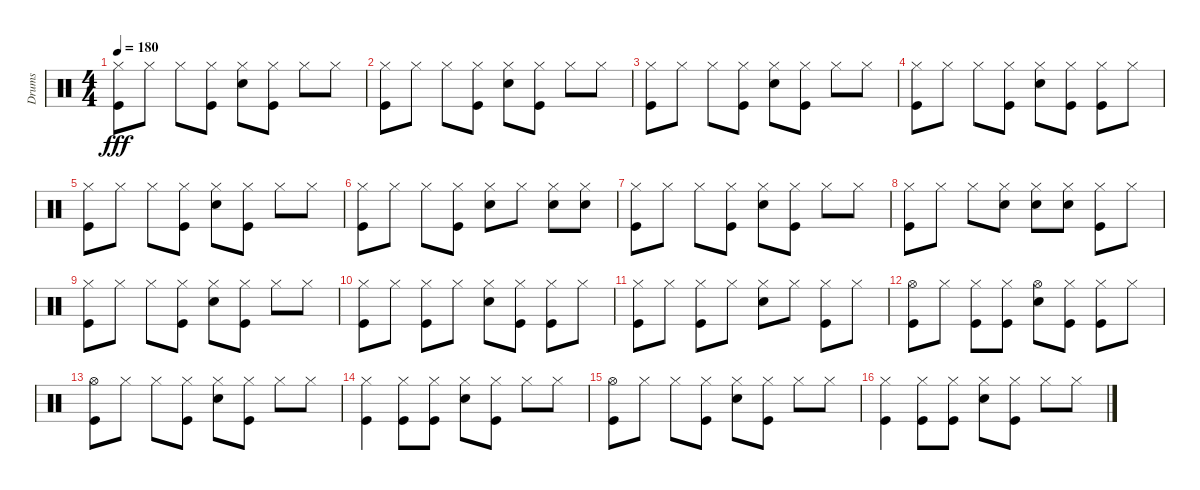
\track ("Drums" "Drums") {instrument percussion}
\staff {score}
\articulation defaults
\ts (4 4)
\tempo 180
\clef neutral
\ks c
("Hi-Hat (closed)" "Kick (hit)").8{dy fff} "Hi-Hat (closed)".8 "Hi-Hat (closed)".8 ("Hi-Hat (closed)" "Kick (hit)").8 ("Hi-Hat (closed)" "Snare (hit) 2").8 ("Hi-Hat (closed)" "Kick (hit)").8 "Hi-Hat (closed)".8 "Hi-Hat (closed)".8 |
("Hi-Hat (closed)" "Kick (hit)").8 "Hi-Hat (closed)".8 "Hi-Hat (closed)".8 ("Hi-Hat (closed)" "Kick (hit)").8 ("Hi-Hat (closed)" "Snare (hit) 2").8 ("Hi-Hat (closed)" "Kick (hit)").8 "Hi-Hat (closed)".8 "Hi-Hat (closed)".8 |
("Hi-Hat (closed)" "Kick (hit)").8 "Hi-Hat (closed)".8 "Hi-Hat (closed)".8 ("Hi-Hat (closed)" "Kick (hit)").8 ("Hi-Hat (closed)" "Snare (hit) 2").8 ("Hi-Hat (closed)" "Kick (hit)").8 "Hi-Hat (closed)".8 "Hi-Hat (closed)".8 |
("Hi-Hat (closed)" "Kick (hit)").8 "Hi-Hat (closed)".8 "Hi-Hat (closed)".8 ("Hi-Hat (closed)" "Kick (hit)").8 ("Hi-Hat (closed)" "Snare (hit) 2").8 ("Hi-Hat (closed)" "Kick (hit)").8 ("Hi-Hat (closed)" "Kick (hit)").8 "Hi-Hat (closed)".8 |
("Hi-Hat (closed)" "Kick (hit)").8 "Hi-Hat (closed)".8 "Hi-Hat (closed)".8 ("Hi-Hat (closed)" "Kick (hit)").8 ("Hi-Hat (closed)" "Snare (hit) 2").8 ("Hi-Hat (closed)" "Kick (hit)").8 "Hi-Hat (closed)".8 "Hi-Hat (closed)".8 |
("Hi-Hat (closed)" "Kick (hit)").8 "Hi-Hat (closed)".8 "Hi-Hat (closed)".8 ("Hi-Hat (closed)" "Kick (hit)").8 ("Hi-Hat (closed)" "Snare (hit) 2").8 "Hi-Hat (closed)".8 ("Hi-Hat (closed)" "Snare (hit) 2").8 ("Hi-Hat (closed)" "Snare (hit) 2").8 |
("Hi-Hat (closed)" "Kick (hit)").8 "Hi-Hat (closed)".8 "Hi-Hat (closed)".8 ("Hi-Hat (closed)" "Kick (hit)").8 ("Hi-Hat (closed)" "Snare (hit) 2").8 ("Hi-Hat (closed)" "Kick (hit)").8 "Hi-Hat (closed)".8 "Hi-Hat (closed)".8 |
("Hi-Hat (closed)" "Kick (hit)").8 "Hi-Hat (closed)".8 "Hi-Hat (closed)".8 ("Hi-Hat (closed)" "Snare (hit) 2").8 ("Hi-Hat (closed)" "Snare (hit) 2").8 ("Hi-Hat (closed)" "Snare (hit) 2").8 ("Hi-Hat (closed)" "Kick (hit)").8 "Hi-Hat (closed)".8 |
("Hi-Hat (closed)" "Kick (hit)").8 "Hi-Hat (closed)".8 "Hi-Hat (closed)".8 ("Hi-Hat (closed)" "Kick (hit)").8 ("Hi-Hat (closed)" "Snare (hit) 2").8 ("Hi-Hat (closed)" "Kick (hit)").8 "Hi-Hat (closed)".8 "Hi-Hat (closed)".8 |
("Hi-Hat (closed)" "Kick (hit)").8 "Hi-Hat (closed)".8 ("Hi-Hat (closed)" "Kick (hit)").8 "Hi-Hat (closed)".8 ("Hi-Hat (closed)" "Snare (hit) 2").8 ("Hi-Hat (closed)" "Kick (hit)").8 ("Hi-Hat (closed)" "Kick (hit)").8 "Hi-Hat (closed)".8 |
("Hi-Hat (closed)" "Kick (hit)").8 "Hi-Hat (closed)".8 ("Hi-Hat (closed)" "Kick (hit)").8 "Hi-Hat (closed)".8 ("Hi-Hat (closed)" "Snare (hit) 2").8 "Hi-Hat (closed)".8 ("Hi-Hat (closed)" "Kick (hit)").8 "Hi-Hat (closed)".8 |
("Hi-Hat (open)" "Kick (hit)").8 "Hi-Hat (closed)".8 ("Hi-Hat (closed)" "Kick (hit)").8 ("Hi-Hat (closed)" "Kick (hit)").8 ("Hi-Hat (open)" "Snare (hit) 2").8 ("Hi-Hat (closed)" "Kick (hit)").8 ("Hi-Hat (closed)" "Kick (hit)").8 "Hi-Hat (closed)".8 |
("Hi-Hat (open)" "Kick (hit)").8 "Hi-Hat (closed)".8 "Hi-Hat (closed)".8 ("Hi-Hat (closed)" "Kick (hit)").8 ("Hi-Hat (closed)" "Snare (hit) 2").8 ("Hi-Hat (closed)" "Kick (hit)").8 "Hi-Hat (closed)".8 "Hi-Hat (closed)".8 |
("Hi-Hat (closed)" "Kick (hit)").4 ("Hi-Hat (closed)" "Kick (hit)").8 ("Hi-Hat (closed)" "Kick (hit)").8 ("Hi-Hat (closed)" "Snare (hit) 2").8 ("Hi-Hat (closed)" "Kick (hit)").8 "Hi-Hat (closed)".8 "Hi-Hat (closed)".8 |
("Hi-Hat (open)" "Kick (hit)").8 "Hi-Hat (closed)".8 "Hi-Hat (closed)".8 ("Hi-Hat (closed)" "Kick (hit)").8 ("Hi-Hat (closed)" "Snare (hit) 2").8 ("Hi-Hat (closed)" "Kick (hit)").8 "Hi-Hat (closed)".8 "Hi-Hat (closed)".8 |
("Hi-Hat (closed)" "Kick (hit)").4 ("Hi-Hat (closed)" "Kick (hit)").8 ("Hi-Hat (closed)" "Kick (hit)").8 ("Hi-Hat (closed)" "Snare (hit) 2").8 ("Hi-Hat (closed)" "Kick (hit)").8 "Hi-Hat (closed)".8 "Hi-Hat (closed)".8
